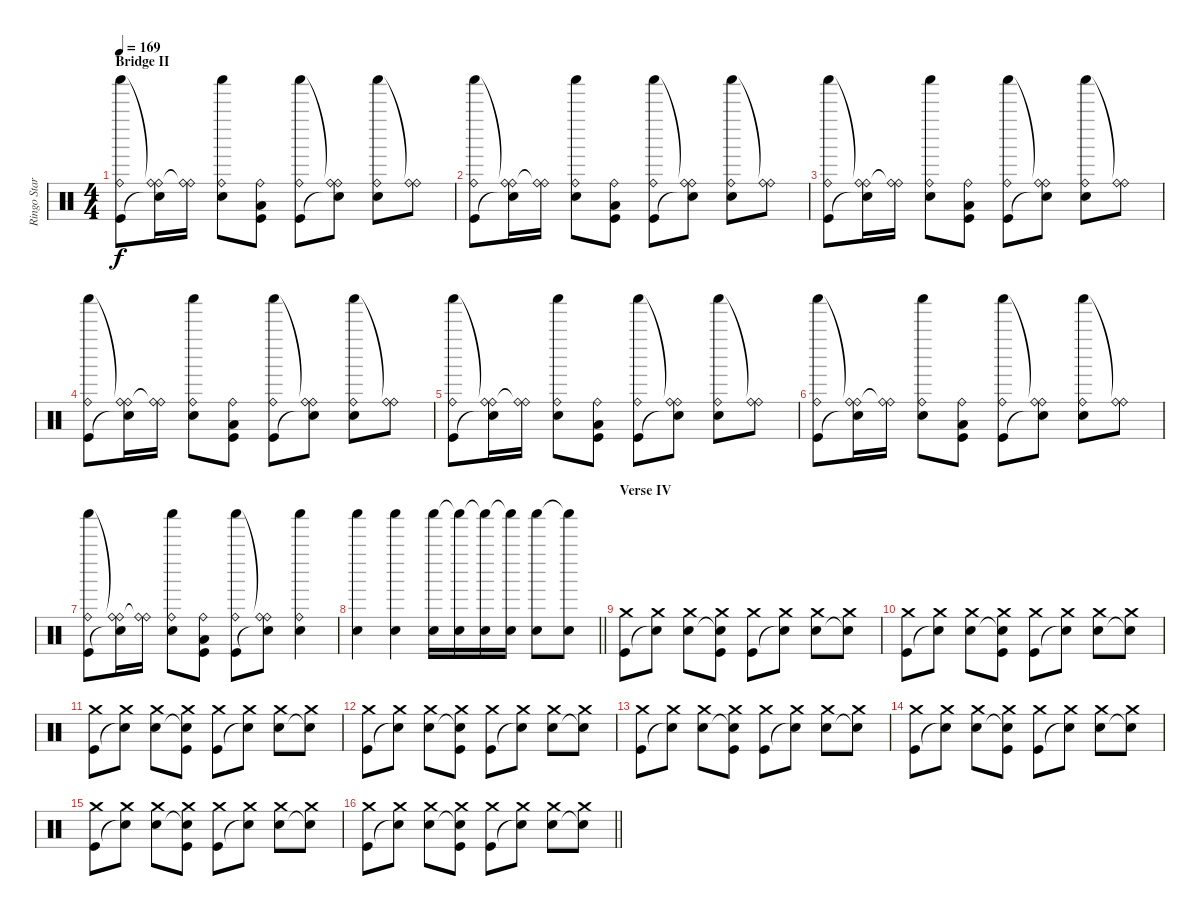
\track ("Ringo Starr" "Ringo Star") {instrument percussion}
\staff {score}
\articulation defaults
\ts (4 4)
\section ("" "Bridge II")
\tempo 169
\clef neutral
\ks c
("Shaker (hit)" "Ride (bell)" "Kick (hit)").8{dy f} ("Ride (bell)"{t} "Ride (bell)" "Snare (hit)"{t}).16 ("Ride (bell)"{t} "Ride (bell)").16 ("Shaker (hit)" "Ride (bell)" "Snare (hit) 2").8 ("Ride (bell)" "Low Floor Tom (hit)" "Kick (hit)").8 ("Shaker (hit)" "Ride (bell)" "Kick (hit)").8 ("Ride (bell)"{t} "Ride (bell)" "Snare (hit)"{t}).8 ("Shaker (hit)" "Ride (bell)" "Snare (hit) 2").8 ("Ride (bell)"{t} "Ride (bell)").8 |
("Shaker (hit)" "Ride (bell)" "Kick (hit)").8 ("Ride (bell)"{t} "Ride (bell)" "Snare (hit)"{t}).16 ("Ride (bell)"{t} "Ride (bell)").16 ("Shaker (hit)" "Ride (bell)" "Snare (hit) 2").8 ("Ride (bell)" "Low Floor Tom (hit)" "Kick (hit)").8 ("Shaker (hit)" "Ride (bell)" "Kick (hit)").8 ("Ride (bell)"{t} "Ride (bell)" "Snare (hit)"{t}).8 ("Shaker (hit)" "Ride (bell)" "Snare (hit) 2").8 ("Ride (bell)"{t} "Ride (bell)").8 |
("Shaker (hit)" "Ride (bell)" "Kick (hit)").8 ("Ride (bell)"{t} "Ride (bell)" "Snare (hit)"{t}).16 ("Ride (bell)"{t} "Ride (bell)").16 ("Shaker (hit)" "Ride (bell)" "Snare (hit) 2").8 ("Ride (bell)" "Low Floor Tom (hit)" "Kick (hit)").8 ("Shaker (hit)" "Ride (bell)" "Kick (hit)").8 ("Ride (bell)"{t} "Ride (bell)" "Snare (hit)"{t}).8 ("Shaker (hit)" "Ride (bell)" "Snare (hit) 2").8 ("Ride (bell)"{t} "Ride (bell)").8 |
("Shaker (hit)" "Ride (bell)" "Kick (hit)").8 ("Ride (bell)"{t} "Ride (bell)" "Snare (hit)"{t}).16 ("Ride (bell)"{t} "Ride (bell)").16 ("Shaker (hit)" "Ride (bell)" "Snare (hit) 2").8 ("Ride (bell)" "Low Floor Tom (hit)" "Kick (hit)").8 ("Shaker (hit)" "Ride (bell)" "Kick (hit)").8 ("Ride (bell)"{t} "Ride (bell)" "Snare (hit)"{t}).8 ("Shaker (hit)" "Ride (bell)" "Snare (hit) 2").8 ("Ride (bell)"{t} "Ride (bell)").8 |
("Shaker (hit)" "Ride (bell)" "Kick (hit)").8 ("Ride (bell)"{t} "Ride (bell)" "Snare (hit)"{t}).16 ("Ride (bell)"{t} "Ride (bell)").16 ("Shaker (hit)" "Ride (bell)" "Snare (hit) 2").8 ("Ride (bell)" "Low Floor Tom (hit)" "Kick (hit)").8 ("Shaker (hit)" "Ride (bell)" "Kick (hit)").8 ("Ride (bell)"{t} "Ride (bell)" "Snare (hit)"{t}).8 ("Shaker (hit)" "Ride (bell)" "Snare (hit) 2").8 ("Ride (bell)"{t} "Ride (bell)").8 |
("Shaker (hit)" "Ride (bell)" "Kick (hit)").8 ("Ride (bell)"{t} "Ride (bell)" "Snare (hit)"{t}).16 ("Ride (bell)"{t} "Ride (bell)").16 ("Shaker (hit)" "Ride (bell)" "Snare (hit) 2").8 ("Ride (bell)" "Low Floor Tom (hit)" "Kick (hit)").8 ("Shaker (hit)" "Ride (bell)" "Kick (hit)").8 ("Ride (bell)"{t} "Ride (bell)" "Snare (hit)"{t}).8 ("Shaker (hit)" "Ride (bell)" "Snare (hit) 2").8 ("Ride (bell)"{t} "Ride (bell)").8 |
("Shaker (hit)" "Ride (bell)" "Kick (hit)").8 ("Ride (bell)"{t} "Ride (bell)" "Snare (hit)"{t}).16 ("Ride (bell)"{t} "Ride (bell)").16 ("Shaker (hit)" "Ride (bell)" "Snare (hit) 2").8 ("Ride (bell)" "Low Floor Tom (hit)" "Kick (hit)").8 ("Shaker (hit)" "Ride (bell)" "Kick (hit)").8 ("Ride (bell)"{t} "Ride (bell)" "Snare (hit)"{t}).8 ("Shaker (hit)" "Ride (bell)" "Snare (hit) 2").4 |
\barLineRight lightlight
("Shaker (hit)" "Snare (hit) 2").4 ("Shaker (hit)" "Snare (hit) 2").4 ("Shaker (hit)" "Snare (hit) 2").16 ("Shaker (hit)"{t} "Snare (hit) 2").16 ("Shaker (hit)"{t} "Snare (hit) 2").16 ("Shaker (hit)"{t} "Snare (hit) 2").16 ("Shaker (hit)" "Snare (hit) 2").8 ("Shaker (hit)"{t} "Snare (hit) 2").8 |
\section ("" "Verse IV")
("Crash medium (hit)" "Kick (hit)").8 ("Crash medium (hit)" "Snare (hit)"{t}).8 ("Crash medium (hit)" "Snare (hit) 2").8 ("Crash medium (hit)" "Snare (hit)"{t} "Kick (hit)").8 ("Crash medium (hit)" "Kick (hit)").8 ("Crash medium (hit)" "Snare (hit)"{t}).8 ("Crash medium (hit)" "Snare (hit) 2").8 ("Crash medium (hit)" "Snare (hit)"{t}).8 |
("Crash medium (hit)" "Kick (hit)").8 ("Crash medium (hit)" "Snare (hit)"{t}).8 ("Crash medium (hit)" "Snare (hit) 2").8 ("Crash medium (hit)" "Snare (hit)"{t} "Kick (hit)").8 ("Crash medium (hit)" "Kick (hit)").8 ("Crash medium (hit)" "Snare (hit)"{t}).8 ("Crash medium (hit)" "Snare (hit) 2").8 ("Crash medium (hit)" "Snare (hit)"{t}).8 |
("Crash medium (hit)" "Kick (hit)").8 ("Crash medium (hit)" "Snare (hit)"{t}).8 ("Crash medium (hit)" "Snare (hit) 2").8 ("Crash medium (hit)" "Snare (hit)"{t} "Kick (hit)").8 ("Crash medium (hit)" "Kick (hit)").8 ("Crash medium (hit)" "Snare (hit)"{t}).8 ("Crash medium (hit)" "Snare (hit) 2").8 ("Crash medium (hit)" "Snare (hit)"{t}).8 |
("Crash medium (hit)" "Kick (hit)").8 ("Crash medium (hit)" "Snare (hit)"{t}).8 ("Crash medium (hit)" "Snare (hit) 2").8 ("Crash medium (hit)" "Snare (hit)"{t} "Kick (hit)").8 ("Crash medium (hit)" "Kick (hit)").8 ("Crash medium (hit)" "Snare (hit)"{t}).8 ("Crash medium (hit)" "Snare (hit) 2").8 ("Crash medium (hit)" "Snare (hit)"{t}).8 |
("Crash medium (hit)" "Kick (hit)").8 ("Crash medium (hit)" "Snare (hit)"{t}).8 ("Crash medium (hit)" "Snare (hit) 2").8 ("Crash medium (hit)" "Snare (hit)"{t} "Kick (hit)").8 ("Crash medium (hit)" "Kick (hit)").8 ("Crash medium (hit)" "Snare (hit)"{t}).8 ("Crash medium (hit)" "Snare (hit) 2").8 ("Crash medium (hit)" "Snare (hit)"{t}).8 |
("Crash medium (hit)" "Kick (hit)").8 ("Crash medium (hit)" "Snare (hit)"{t}).8 ("Crash medium (hit)" "Snare (hit) 2").8 ("Crash medium (hit)" "Snare (hit)"{t} "Kick (hit)").8 ("Crash medium (hit)" "Kick (hit)").8 ("Crash medium (hit)" "Snare (hit)"{t}).8 ("Crash medium (hit)" "Snare (hit) 2").8 ("Crash medium (hit)" "Snare (hit)"{t}).8 |
("Crash medium (hit)" "Kick (hit)").8 ("Crash medium (hit)" "Snare (hit)"{t}).8 ("Crash medium (hit)" "Snare (hit) 2").8 ("Crash medium (hit)" "Snare (hit)"{t} "Kick (hit)").8 ("Crash medium (hit)" "Kick (hit)").8 ("Crash medium (hit)" "Snare (hit)"{t}).8 ("Crash medium (hit)" "Snare (hit) 2").8 ("Crash medium (hit)" "Snare (hit)"{t}).8 |
\barLineRight lightlight
("Crash medium (hit)" "Kick (hit)").8 ("Crash medium (hit)" "Snare (hit)"{t}).8 ("Crash medium (hit)" "Snare (hit) 2").8 ("Crash medium (hit)" "Snare (hit)"{t} "Kick (hit)").8 ("Crash medium (hit)" "Kick (hit)").8 ("Crash medium (hit)" "Snare (hit)"{t}).8 ("Crash medium (hit)" "Snare (hit) 2").8 ("Crash medium (hit)" "Snare (hit)"{t}).8
